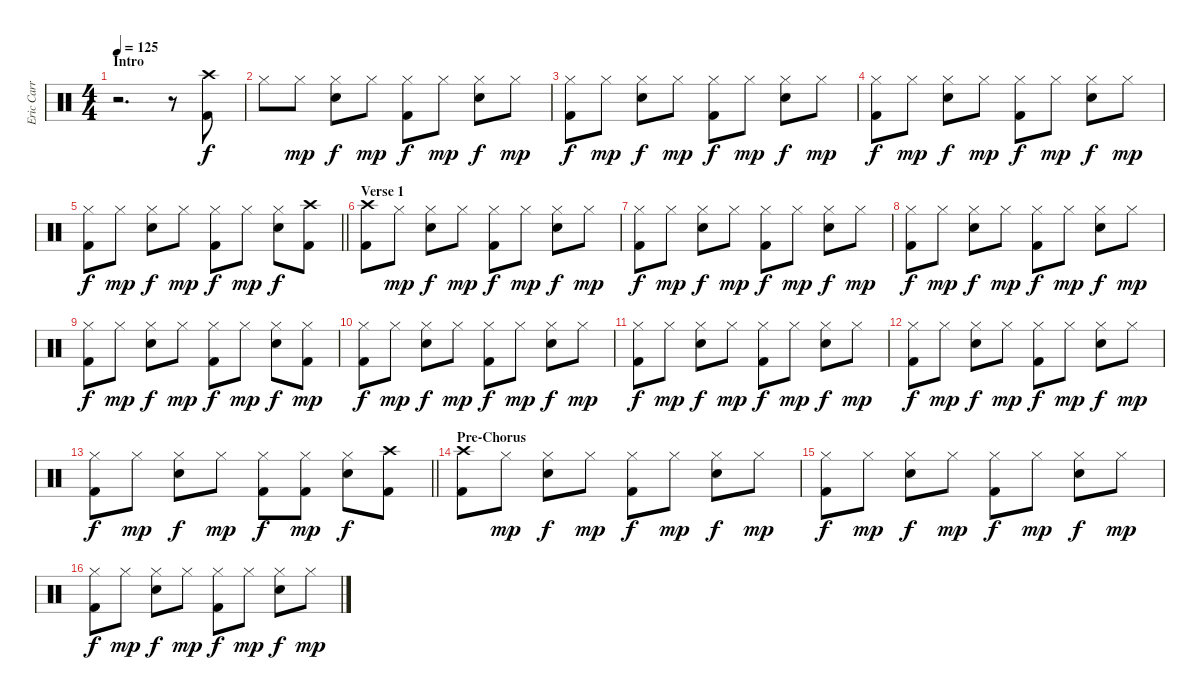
\track ("Eric Carr" "Eric Carr") {instrument percussion}
\staff {score}
\articulation defaults
\ts (4 4)
\section ("" "Intro")
\tempo 125
\clef neutral
\ks c
r.2{d dy f} r.8 ("Crash high (hit)" "Kick (hit) 2").8 |
"Hi-Hat (closed)".8 "Hi-Hat (closed)".8{dy mp} ("Hi-Hat (closed)" "Snare (hit) 2").8{dy f} "Hi-Hat (closed)".8{dy mp} ("Hi-Hat (closed)" "Kick (hit) 2").8{dy f} "Hi-Hat (closed)".8{dy mp} ("Hi-Hat (closed)" "Snare (hit) 2").8{dy f} "Hi-Hat (closed)".8{dy mp} |
("Hi-Hat (closed)" "Kick (hit) 2").8{dy f} "Hi-Hat (closed)".8{dy mp} ("Hi-Hat (closed)" "Snare (hit) 2").8{dy f} "Hi-Hat (closed)".8{dy mp} ("Hi-Hat (closed)" "Kick (hit) 2").8{dy f} "Hi-Hat (closed)".8{dy mp} ("Hi-Hat (closed)" "Snare (hit) 2").8{dy f} "Hi-Hat (closed)".8{dy mp} |
("Hi-Hat (closed)" "Kick (hit) 2").8{dy f} "Hi-Hat (closed)".8{dy mp} ("Hi-Hat (closed)" "Snare (hit) 2").8{dy f} "Hi-Hat (closed)".8{dy mp} ("Hi-Hat (closed)" "Kick (hit) 2").8{dy f} "Hi-Hat (closed)".8{dy mp} ("Hi-Hat (closed)" "Snare (hit) 2").8{dy f} "Hi-Hat (closed)".8{dy mp} |
\barLineRight lightlight
("Hi-Hat (closed)" "Kick (hit) 2").8{dy f} "Hi-Hat (closed)".8{dy mp} ("Hi-Hat (closed)" "Snare (hit) 2").8{dy f} "Hi-Hat (closed)".8{dy mp} ("Hi-Hat (closed)" "Kick (hit) 2").8{dy f} "Hi-Hat (closed)".8{dy mp} ("Hi-Hat (closed)" "Snare (hit) 2").8{dy f} ("Crash high (hit)" "Kick (hit) 2").8 |
\section ("" "Verse 1")
("Crash high (hit)" "Kick (hit) 2").8 "Hi-Hat (closed)".8{dy mp} ("Hi-Hat (closed)" "Snare (hit) 2").8{dy f} "Hi-Hat (closed)".8{dy mp} ("Hi-Hat (closed)" "Kick (hit) 2").8{dy f} "Hi-Hat (closed)".8{dy mp} ("Hi-Hat (closed)" "Snare (hit) 2").8{dy f} "Hi-Hat (closed)".8{dy mp} |
("Hi-Hat (closed)" "Kick (hit) 2").8{dy f} "Hi-Hat (closed)".8{dy mp} ("Hi-Hat (closed)" "Snare (hit) 2").8{dy f} "Hi-Hat (closed)".8{dy mp} ("Hi-Hat (closed)" "Kick (hit) 2").8{dy f} "Hi-Hat (closed)".8{dy mp} ("Hi-Hat (closed)" "Snare (hit) 2").8{dy f} "Hi-Hat (closed)".8{dy mp} |
("Hi-Hat (closed)" "Kick (hit) 2").8{dy f} "Hi-Hat (closed)".8{dy mp} ("Hi-Hat (closed)" "Snare (hit) 2").8{dy f} "Hi-Hat (closed)".8{dy mp} ("Hi-Hat (closed)" "Kick (hit) 2").8{dy f} "Hi-Hat (closed)".8{dy mp} ("Hi-Hat (closed)" "Snare (hit) 2").8{dy f} "Hi-Hat (closed)".8{dy mp} |
("Hi-Hat (closed)" "Kick (hit) 2").8{dy f} "Hi-Hat (closed)".8{dy mp} ("Hi-Hat (closed)" "Snare (hit) 2").8{dy f} "Hi-Hat (closed)".8{dy mp} ("Hi-Hat (closed)" "Kick (hit) 2").8{dy f} "Hi-Hat (closed)".8{dy mp} ("Hi-Hat (closed)" "Snare (hit) 2").8{dy f} ("Hi-Hat (closed)" "Kick (hit) 2").8{dy mp} |
("Hi-Hat (closed)" "Kick (hit) 2").8{dy f} "Hi-Hat (closed)".8{dy mp} ("Hi-Hat (closed)" "Snare (hit) 2").8{dy f} "Hi-Hat (closed)".8{dy mp} ("Hi-Hat (closed)" "Kick (hit) 2").8{dy f} "Hi-Hat (closed)".8{dy mp} ("Hi-Hat (closed)" "Snare (hit) 2").8{dy f} "Hi-Hat (closed)".8{dy mp} |
("Hi-Hat (closed)" "Kick (hit) 2").8{dy f} "Hi-Hat (closed)".8{dy mp} ("Hi-Hat (closed)" "Snare (hit) 2").8{dy f} "Hi-Hat (closed)".8{dy mp} ("Hi-Hat (closed)" "Kick (hit) 2").8{dy f} "Hi-Hat (closed)".8{dy mp} ("Hi-Hat (closed)" "Snare (hit) 2").8{dy f} "Hi-Hat (closed)".8{dy mp} |
("Hi-Hat (closed)" "Kick (hit) 2").8{dy f} "Hi-Hat (closed)".8{dy mp} ("Hi-Hat (closed)" "Snare (hit) 2").8{dy f} "Hi-Hat (closed)".8{dy mp} ("Hi-Hat (closed)" "Kick (hit) 2").8{dy f} "Hi-Hat (closed)".8{dy mp} ("Hi-Hat (closed)" "Snare (hit) 2").8{dy f} "Hi-Hat (closed)".8{dy mp} |
\barLineRight lightlight
("Hi-Hat (closed)" "Kick (hit) 2").8{dy f} "Hi-Hat (closed)".8{dy mp} ("Hi-Hat (closed)" "Snare (hit) 2").8{dy f} "Hi-Hat (closed)".8{dy mp} ("Hi-Hat (closed)" "Kick (hit) 2").8{dy f} ("Hi-Hat (closed)" "Kick (hit) 2").8{dy mp} ("Hi-Hat (closed)" "Snare (hit) 2").8{dy f} ("Crash high (hit)" "Kick (hit) 2").8 |
\section ("" "Pre-Chorus")
("Crash high (hit)" "Kick (hit) 2").8 "Hi-Hat (closed)".8{dy mp} ("Hi-Hat (closed)" "Snare (hit) 2").8{dy f} "Hi-Hat (closed)".8{dy mp} ("Hi-Hat (closed)" "Kick (hit) 2").8{dy f} "Hi-Hat (closed)".8{dy mp} ("Hi-Hat (closed)" "Snare (hit) 2").8{dy f} "Hi-Hat (closed)".8{dy mp} |
("Hi-Hat (closed)" "Kick (hit) 2").8{dy f} "Hi-Hat (closed)".8{dy mp} ("Hi-Hat (closed)" "Snare (hit) 2").8{dy f} "Hi-Hat (closed)".8{dy mp} ("Hi-Hat (closed)" "Kick (hit) 2").8{dy f} "Hi-Hat (closed)".8{dy mp} ("Hi-Hat (closed)" "Snare (hit) 2").8{dy f} "Hi-Hat (closed)".8{dy mp} |
("Hi-Hat (closed)" "Kick (hit) 2").8{dy f} "Hi-Hat (closed)".8{dy mp} ("Hi-Hat (closed)" "Snare (hit) 2").8{dy f} "Hi-Hat (closed)".8{dy mp} ("Hi-Hat (closed)" "Kick (hit) 2").8{dy f} "Hi-Hat (closed)".8{dy mp} ("Hi-Hat (closed)" "Snare (hit) 2").8{dy f} "Hi-Hat (closed)".8{dy mp}
